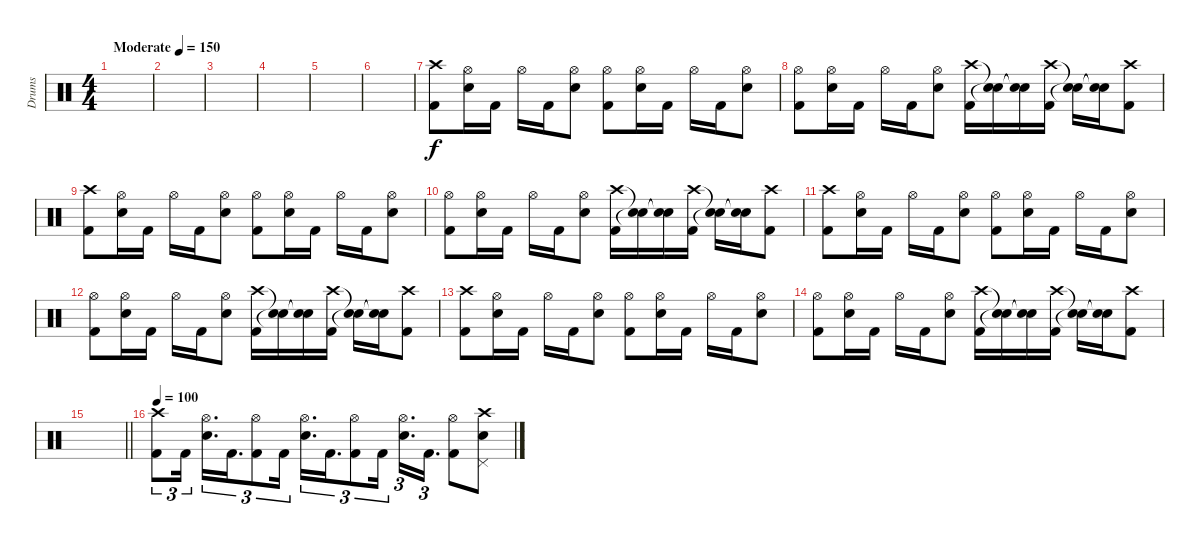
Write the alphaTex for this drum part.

\track ("Drums" "Drums") {instrument percussion}
\staff {score}
\articulation defaults
\ts (4 4)
\tempo (150 "Moderate")
\clef neutral
\ks c
|
|
|
|
|
|
("Crash high (hit)" "Kick (hit) 2").8 ("Hi-Hat (open)" "Electric Snare (hit)").16 "Kick (hit) 2".16 "Hi-Hat (open)".16 "Kick (hit) 2".16 ("Hi-Hat (open)" "Electric Snare (hit)").8 ("Hi-Hat (open)" "Kick (hit) 2").8 ("Hi-Hat (open)" "Electric Snare (hit)").16 "Kick (hit) 2".16 "Hi-Hat (open)".16 "Kick (hit) 2".16 ("Hi-Hat (open)" "Electric Snare (hit)").8 |
("Hi-Hat (open)" "Kick (hit) 2").8 ("Hi-Hat (open)" "Electric Snare (hit)").16 "Kick (hit) 2".16 "Hi-Hat (open)".16 "Kick (hit) 2".16 ("Hi-Hat (open)" "Electric Snare (hit)").8 ("Crash high (hit)" "Kick (hit) 2").16 ("Snare (hit)"{t} "Snare (hit)"{t}).16 ("Snare (hit)"{t} "Snare (hit)"{t}).16 ("Crash high (hit)" "Kick (hit) 2").16 ("Snare (hit)"{t} "Snare (hit)"{t}).16 ("Snare (hit)"{t} "Snare (hit)"{t}).16 ("Crash high (hit)" "Kick (hit) 2").8 |
("Crash high (hit)" "Kick (hit) 2").8 ("Hi-Hat (open)" "Electric Snare (hit)").16 "Kick (hit) 2".16 "Hi-Hat (open)".16 "Kick (hit) 2".16 ("Hi-Hat (open)" "Electric Snare (hit)").8 ("Hi-Hat (open)" "Kick (hit) 2").8 ("Hi-Hat (open)" "Electric Snare (hit)").16 "Kick (hit) 2".16 "Hi-Hat (open)".16 "Kick (hit) 2".16 ("Hi-Hat (open)" "Electric Snare (hit)").8 |
("Hi-Hat (open)" "Kick (hit) 2").8 ("Hi-Hat (open)" "Electric Snare (hit)").16 "Kick (hit) 2".16 "Hi-Hat (open)".16 "Kick (hit) 2".16 ("Hi-Hat (open)" "Electric Snare (hit)").8 ("Crash high (hit)" "Kick (hit) 2").16 ("Snare (hit)"{t} "Snare (hit)"{t}).16 ("Snare (hit)"{t} "Snare (hit)"{t}).16 ("Crash high (hit)" "Kick (hit) 2").16 ("Snare (hit)"{t} "Snare (hit)"{t}).16 ("Snare (hit)"{t} "Snare (hit)"{t}).16 ("Crash high (hit)" "Kick (hit) 2").8 |
("Crash high (hit)" "Kick (hit) 2").8 ("Hi-Hat (open)" "Electric Snare (hit)").16 "Kick (hit) 2".16 "Hi-Hat (open)".16 "Kick (hit) 2".16 ("Hi-Hat (open)" "Electric Snare (hit)").8 ("Hi-Hat (open)" "Kick (hit) 2").8 ("Hi-Hat (open)" "Electric Snare (hit)").16 "Kick (hit) 2".16 "Hi-Hat (open)".16 "Kick (hit) 2".16 ("Hi-Hat (open)" "Electric Snare (hit)").8 |
("Hi-Hat (open)" "Kick (hit) 2").8 ("Hi-Hat (open)" "Electric Snare (hit)").16 "Kick (hit) 2".16 "Hi-Hat (open)".16 "Kick (hit) 2".16 ("Hi-Hat (open)" "Electric Snare (hit)").8 ("Crash high (hit)" "Kick (hit) 2").16 ("Snare (hit)"{t} "Snare (hit)"{t}).16 ("Snare (hit)"{t} "Snare (hit)"{t}).16 ("Crash high (hit)" "Kick (hit) 2").16 ("Snare (hit)"{t} "Snare (hit)"{t}).16 ("Snare (hit)"{t} "Snare (hit)"{t}).16 ("Crash high (hit)" "Kick (hit) 2").8 |
("Crash high (hit)" "Kick (hit) 2").8 ("Hi-Hat (open)" "Electric Snare (hit)").16 "Kick (hit) 2".16 "Hi-Hat (open)".16 "Kick (hit) 2".16 ("Hi-Hat (open)" "Electric Snare (hit)").8 ("Hi-Hat (open)" "Kick (hit) 2").8 ("Hi-Hat (open)" "Electric Snare (hit)").16 "Kick (hit) 2".16 "Hi-Hat (open)".16 "Kick (hit) 2".16 ("Hi-Hat (open)" "Electric Snare (hit)").8 |
("Hi-Hat (open)" "Kick (hit) 2").8 ("Hi-Hat (open)" "Electric Snare (hit)").16 "Kick (hit) 2".16 "Hi-Hat (open)".16 "Kick (hit) 2".16 ("Hi-Hat (open)" "Electric Snare (hit)").8 ("Crash high (hit)" "Kick (hit) 2").16 ("Snare (hit)"{t} "Snare (hit)"{t}).16 ("Snare (hit)"{t} "Snare (hit)"{t}).16 ("Crash high (hit)" "Kick (hit) 2").16 ("Snare (hit)"{t} "Snare (hit)"{t}).16 ("Snare (hit)"{t} "Snare (hit)"{t}).16 ("Crash high (hit)" "Kick (hit) 2").8 |
\barLineRight lightlight
|
\tempo 100
("Kick (hit) 2" "Crash high (hit)").8{tu (3 2)} "Kick (hit) 2".16{tu (3 2) beam splitsecondary} ("Hi-Hat (open)" "Electric Snare (hit)").16{d tu (3 2)} "Kick (hit) 2".16{d tu (3 2)} ("Kick (hit) 2" "Hi-Hat (open)").8{tu (3 2)} "Kick (hit) 2".16{tu (3 2) beam splitsecondary} ("Hi-Hat (open)" "Electric Snare (hit)").16{d tu (3 2)} "Kick (hit) 2".16{d tu (3 2)} ("Kick (hit) 2" "Hi-Hat (open)").8{tu (3 2)} "Kick (hit) 2".16{tu (3 2) beam splitsecondary} ("Hi-Hat (open)" "Electric Snare (hit)").16{d tu (3 2)} "Kick (hit) 2".16{d tu (3 2)} ("Kick (hit) 2" "Hi-Hat (open)").8 ("Crash high (hit)" "Electric Snare (hit)" "Pedal Hi-Hat (hit)").8
